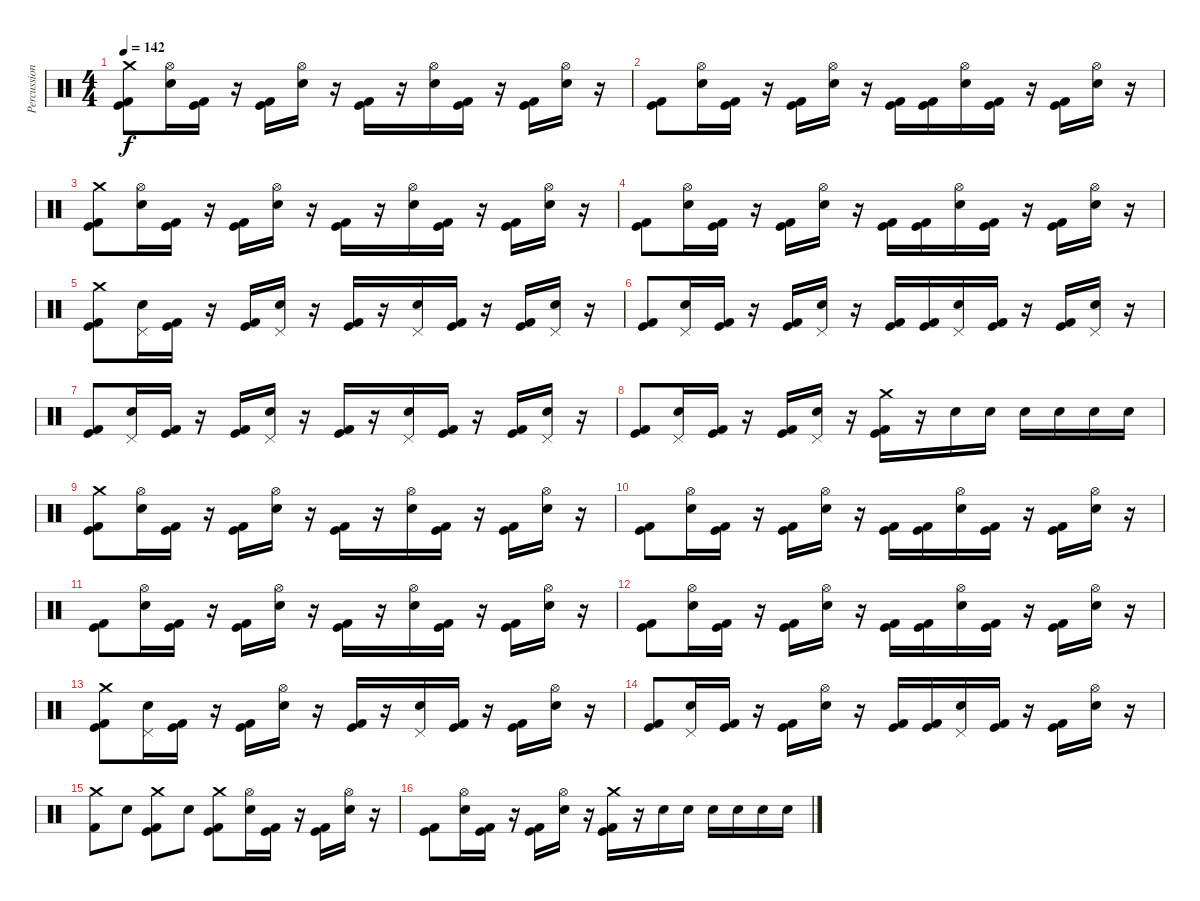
\track ("Percussions" "Percussion") {instrument percussion}
\staff {score}
\articulation defaults
\ts (4 4)
\tempo 142
\clef neutral
\ks c
("Crash medium (hit)" "Kick (hit)" "Kick (hit) 2").8{dy f} ("Hi-Hat (open)" "Electric Snare (hit)").16 ("Kick (hit)" "Kick (hit) 2").16 r.16 ("Kick (hit)" "Kick (hit) 2").16 ("Hi-Hat (open)" "Electric Snare (hit)").16 r.16 ("Kick (hit)" "Kick (hit) 2").16 r.16 ("Hi-Hat (open)" "Electric Snare (hit)").16 ("Kick (hit)" "Kick (hit) 2").16 r.16 ("Kick (hit)" "Kick (hit) 2").16 ("Hi-Hat (open)" "Electric Snare (hit)").16 r.16 |
("Kick (hit)" "Kick (hit) 2").8 ("Hi-Hat (open)" "Electric Snare (hit)").16 ("Kick (hit)" "Kick (hit) 2").16 r.16 ("Kick (hit)" "Kick (hit) 2").16 ("Hi-Hat (open)" "Electric Snare (hit)").16 r.16 ("Kick (hit)" "Kick (hit) 2").16 ("Kick (hit)" "Kick (hit) 2").16 ("Hi-Hat (open)" "Electric Snare (hit)").16 ("Kick (hit)" "Kick (hit) 2").16 r.16 ("Kick (hit)" "Kick (hit) 2").16 ("Hi-Hat (open)" "Electric Snare (hit)").16 r.16 |
("Crash medium (hit)" "Kick (hit)" "Kick (hit) 2").8 ("Hi-Hat (open)" "Electric Snare (hit)").16 ("Kick (hit)" "Kick (hit) 2").16 r.16 ("Kick (hit)" "Kick (hit) 2").16 ("Hi-Hat (open)" "Electric Snare (hit)").16 r.16 ("Kick (hit)" "Kick (hit) 2").16 r.16 ("Hi-Hat (open)" "Electric Snare (hit)").16 ("Kick (hit)" "Kick (hit) 2").16 r.16 ("Kick (hit)" "Kick (hit) 2").16 ("Hi-Hat (open)" "Electric Snare (hit)").16 r.16 |
("Kick (hit)" "Kick (hit) 2").8 ("Hi-Hat (open)" "Electric Snare (hit)").16 ("Kick (hit)" "Kick (hit) 2").16 r.16 ("Kick (hit)" "Kick (hit) 2").16 ("Hi-Hat (open)" "Electric Snare (hit)").16 r.16 ("Kick (hit)" "Kick (hit) 2").16 ("Kick (hit)" "Kick (hit) 2").16 ("Hi-Hat (open)" "Electric Snare (hit)").16 ("Kick (hit)" "Kick (hit) 2").16 r.16 ("Kick (hit)" "Kick (hit) 2").16 ("Hi-Hat (open)" "Electric Snare (hit)").16 r.16 |
("Crash medium (hit)" "Kick (hit)" "Kick (hit) 2").8 ("Pedal Hi-Hat (hit)" "Electric Snare (hit)").16 ("Kick (hit)" "Kick (hit) 2").16 r.16 ("Kick (hit)" "Kick (hit) 2").16 ("Pedal Hi-Hat (hit)" "Electric Snare (hit)").16 r.16 ("Kick (hit)" "Kick (hit) 2").16 r.16 ("Pedal Hi-Hat (hit)" "Electric Snare (hit)").16 ("Kick (hit)" "Kick (hit) 2").16 r.16 ("Kick (hit)" "Kick (hit) 2").16 ("Pedal Hi-Hat (hit)" "Electric Snare (hit)").16 r.16 |
("Kick (hit)" "Kick (hit) 2").8 ("Pedal Hi-Hat (hit)" "Electric Snare (hit)").16 ("Kick (hit)" "Kick (hit) 2").16 r.16 ("Kick (hit)" "Kick (hit) 2").16 ("Pedal Hi-Hat (hit)" "Electric Snare (hit)").16 r.16 ("Kick (hit)" "Kick (hit) 2").16 ("Kick (hit)" "Kick (hit) 2").16 ("Pedal Hi-Hat (hit)" "Electric Snare (hit)").16 ("Kick (hit)" "Kick (hit) 2").16 r.16 ("Kick (hit)" "Kick (hit) 2").16 ("Pedal Hi-Hat (hit)" "Electric Snare (hit)").16 r.16 |
("Kick (hit)" "Kick (hit) 2").8 ("Pedal Hi-Hat (hit)" "Electric Snare (hit)").16 ("Kick (hit)" "Kick (hit) 2").16 r.16 ("Kick (hit)" "Kick (hit) 2").16 ("Pedal Hi-Hat (hit)" "Electric Snare (hit)").16 r.16 ("Kick (hit)" "Kick (hit) 2").16 r.16 ("Pedal Hi-Hat (hit)" "Electric Snare (hit)").16 ("Kick (hit)" "Kick (hit) 2").16 r.16 ("Kick (hit)" "Kick (hit) 2").16 ("Pedal Hi-Hat (hit)" "Electric Snare (hit)").16 r.16 |
("Kick (hit)" "Kick (hit) 2").8 ("Pedal Hi-Hat (hit)" "Electric Snare (hit)").16 ("Kick (hit)" "Kick (hit) 2").16 r.16 ("Kick (hit)" "Kick (hit) 2").16 ("Pedal Hi-Hat (hit)" "Electric Snare (hit)").16 r.16 ("Crash medium (hit)" "Kick (hit)" "Kick (hit) 2").16 r.16 "Electric Snare (hit)".16 "Electric Snare (hit)".16 "Electric Snare (hit)".16 "Electric Snare (hit)".16 "Electric Snare (hit)".16 "Electric Snare (hit)".16 |
("Crash medium (hit)" "Kick (hit)" "Kick (hit) 2").8 ("Hi-Hat (open)" "Electric Snare (hit)").16 ("Kick (hit)" "Kick (hit) 2").16 r.16 ("Kick (hit)" "Kick (hit) 2").16 ("Hi-Hat (open)" "Electric Snare (hit)").16 r.16 ("Kick (hit)" "Kick (hit) 2").16 r.16 ("Hi-Hat (open)" "Electric Snare (hit)").16 ("Kick (hit)" "Kick (hit) 2").16 r.16 ("Kick (hit)" "Kick (hit) 2").16 ("Hi-Hat (open)" "Electric Snare (hit)").16 r.16 |
("Kick (hit)" "Kick (hit) 2").8 ("Hi-Hat (open)" "Electric Snare (hit)").16 ("Kick (hit)" "Kick (hit) 2").16 r.16 ("Kick (hit)" "Kick (hit) 2").16 ("Hi-Hat (open)" "Electric Snare (hit)").16 r.16 ("Kick (hit)" "Kick (hit) 2").16 ("Kick (hit)" "Kick (hit) 2").16 ("Hi-Hat (open)" "Electric Snare (hit)").16 ("Kick (hit)" "Kick (hit) 2").16 r.16 ("Kick (hit)" "Kick (hit) 2").16 ("Hi-Hat (open)" "Electric Snare (hit)").16 r.16 |
("Kick (hit)" "Kick (hit) 2").8 ("Hi-Hat (open)" "Electric Snare (hit)").16 ("Kick (hit)" "Kick (hit) 2").16 r.16 ("Kick (hit)" "Kick (hit) 2").16 ("Hi-Hat (open)" "Electric Snare (hit)").16 r.16 ("Kick (hit)" "Kick (hit) 2").16 r.16 ("Hi-Hat (open)" "Electric Snare (hit)").16 ("Kick (hit)" "Kick (hit) 2").16 r.16 ("Kick (hit)" "Kick (hit) 2").16 ("Hi-Hat (open)" "Electric Snare (hit)").16 r.16 |
("Kick (hit)" "Kick (hit) 2").8 ("Hi-Hat (open)" "Electric Snare (hit)").16 ("Kick (hit)" "Kick (hit) 2").16 r.16 ("Kick (hit)" "Kick (hit) 2").16 ("Hi-Hat (open)" "Electric Snare (hit)").16 r.16 ("Kick (hit)" "Kick (hit) 2").16 ("Kick (hit)" "Kick (hit) 2").16 ("Hi-Hat (open)" "Electric Snare (hit)").16 ("Kick (hit)" "Kick (hit) 2").16 r.16 ("Kick (hit)" "Kick (hit) 2").16 ("Hi-Hat (open)" "Electric Snare (hit)").16 r.16 |
("Crash medium (hit)" "Kick (hit)" "Kick (hit) 2").8 ("Pedal Hi-Hat (hit)" "Electric Snare (hit)").16 ("Kick (hit)" "Kick (hit) 2").16 r.16 ("Kick (hit)" "Kick (hit) 2").16 ("Hi-Hat (open)" "Electric Snare (hit)").16 r.16 ("Kick (hit)" "Kick (hit) 2").16 r.16 ("Pedal Hi-Hat (hit)" "Electric Snare (hit)").16 ("Kick (hit)" "Kick (hit) 2").16 r.16 ("Kick (hit)" "Kick (hit) 2").16 ("Hi-Hat (open)" "Electric Snare (hit)").16 r.16 |
("Kick (hit)" "Kick (hit) 2").8 ("Pedal Hi-Hat (hit)" "Electric Snare (hit)").16 ("Kick (hit)" "Kick (hit) 2").16 r.16 ("Kick (hit)" "Kick (hit) 2").16 ("Hi-Hat (open)" "Electric Snare (hit)").16 r.16 ("Kick (hit)" "Kick (hit) 2").16 ("Kick (hit)" "Kick (hit) 2").16 ("Pedal Hi-Hat (hit)" "Electric Snare (hit)").16 ("Kick (hit)" "Kick (hit) 2").16 r.16 ("Kick (hit)" "Kick (hit) 2").16 ("Hi-Hat (open)" "Electric Snare (hit)").16 r.16 |
("Crash medium (hit)" "Kick (hit) 2").8 "Electric Snare (hit)".8 ("Crash medium (hit)" "Kick (hit)" "Kick (hit) 2").8 "Electric Snare (hit)".8 ("Crash medium (hit)" "Kick (hit)" "Kick (hit) 2").8 ("Hi-Hat (open)" "Electric Snare (hit)").16 ("Kick (hit)" "Kick (hit) 2").16 r.16 ("Kick (hit)" "Kick (hit) 2").16 ("Hi-Hat (open)" "Electric Snare (hit)").16 r.16 |
("Kick (hit)" "Kick (hit) 2").8 ("Hi-Hat (open)" "Electric Snare (hit)").16 ("Kick (hit)" "Kick (hit) 2").16 r.16 ("Kick (hit)" "Kick (hit) 2").16 ("Hi-Hat (open)" "Electric Snare (hit)").16 r.16 ("Crash medium (hit)" "Kick (hit)" "Kick (hit) 2").16 r.16 "Electric Snare (hit)".16 "Electric Snare (hit)".16 "Electric Snare (hit)".16 "Electric Snare (hit)".16 "Electric Snare (hit)".16 "Electric Snare (hit)".16
